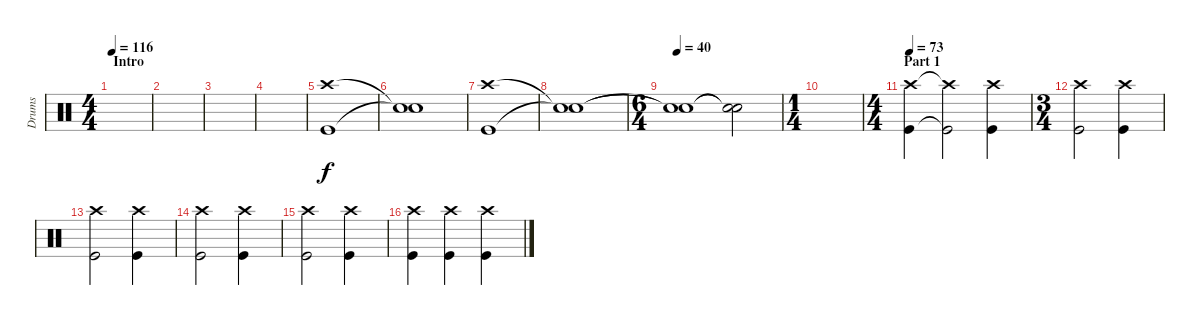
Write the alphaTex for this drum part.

\track ("Drums" "Drums") {instrument percussion}
\staff {score}
\articulation defaults
\ts (4 4)
\section ("" "Intro")
\tempo 116
\clef neutral
\ks c
|
|
|
|
("Crash high (hit)" "Kick (hit)").1 |
("Snare (hit)"{t} "Snare (hit)"{t}).1 |
("Crash high (hit)" "Kick (hit)").1 |
("Snare (hit)"{t} "Snare (hit)"{t}).1 |
\ts (6 4)
\tempo 40
("Snare (hit)"{t} "Snare (hit)"{t}).1 ("Snare (hit)"{t} "Snare (hit)"{t}).2 |
\ts (1 4)
|
\ts (4 4)
\section ("" "Part 1")
\tempo 73
("Crash high (hit)" "Kick (hit)").4 ("Crash high (hit)"{t} "Kick (hit)"{t}).2 ("Crash high (hit)" "Kick (hit)").4 |
\ts (3 4)
("Crash high (hit)" "Kick (hit)").2 ("Crash high (hit)" "Kick (hit)").4 |
("Crash high (hit)" "Kick (hit)").2 ("Crash high (hit)" "Kick (hit)").4 |
("Crash high (hit)" "Kick (hit)").2 ("Crash high (hit)" "Kick (hit)").4 |
("Crash high (hit)" "Kick (hit)").2 ("Crash high (hit)" "Kick (hit)").4 |
("Crash high (hit)" "Kick (hit)").4 ("Crash high (hit)" "Kick (hit)").4 ("Crash high (hit)" "Kick (hit)").4
